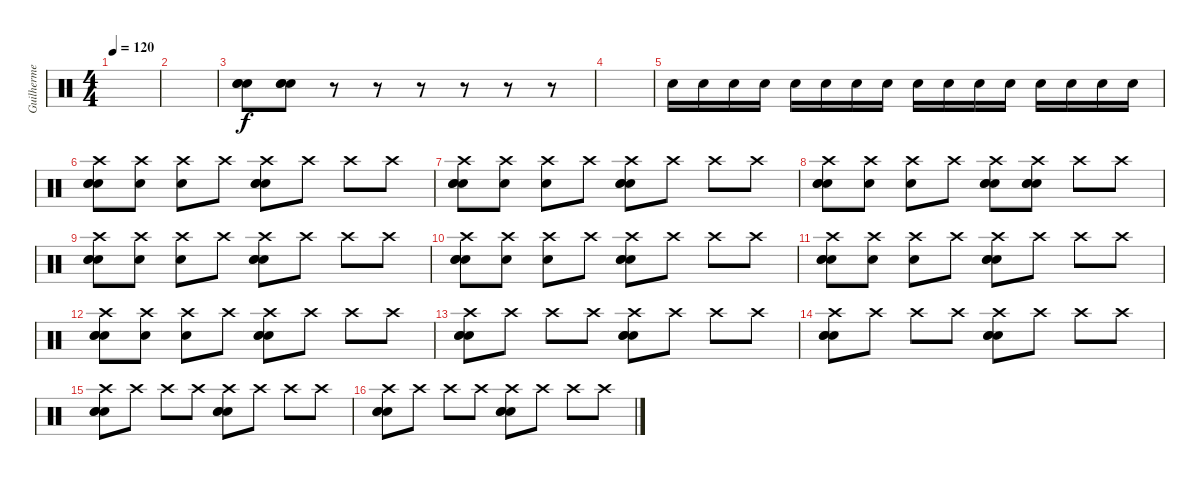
\track ("Guilherme" "Guilherme") {instrument percussion}
\staff {score}
\articulation defaults
\ts (4 4)
\tempo 120
\clef neutral
\ks c
|
|
("Snare (hit) 2" "Snare (hit) 2" "Snare (hit) 2").8 ("Snare (hit) 2" "Snare (hit) 2" "Snare (hit) 2").8 r.8 r.8 r.8 r.8 r.8 r.8 |
|
"Electric Snare (hit)".16 "Electric Snare (hit)".16 "Electric Snare (hit)".16 "Electric Snare (hit)".16 "Electric Snare (hit)".16 "Electric Snare (hit)".16 "Electric Snare (hit)".16 "Electric Snare (hit)".16 "Snare (hit) 2".16 "Snare (hit) 2".16 "Snare (hit) 2".16 "Snare (hit) 2".16 "Snare (hit) 2".16 "Snare (hit) 2".16 "Snare (hit) 2".16 "Snare (hit) 2".16 |
("Crash high (hit)" "Snare (hit) 2" "Snare (hit) 2" "Snare (hit) 2").8 ("Crash high (hit)" "Electric Snare (hit)").8 ("Crash high (hit)" "Electric Snare (hit)").8 "Crash high (hit)".8 ("Crash high (hit)" "Snare (hit) 2" "Snare (hit) 2" "Snare (hit) 2").8 "Crash high (hit)".8 "Crash high (hit)".8 "Crash high (hit)".8 |
("Crash high (hit)" "Snare (hit) 2" "Snare (hit) 2" "Snare (hit) 2").8 ("Crash high (hit)" "Electric Snare (hit)").8 ("Crash high (hit)" "Electric Snare (hit)").8 "Crash high (hit)".8 ("Crash high (hit)" "Snare (hit) 2" "Snare (hit) 2" "Snare (hit) 2").8 "Crash high (hit)".8 "Crash high (hit)".8 "Crash high (hit)".8 |
("Crash high (hit)" "Snare (hit) 2" "Snare (hit) 2" "Snare (hit) 2").8 ("Crash high (hit)" "Electric Snare (hit)").8 ("Crash high (hit)" "Electric Snare (hit)").8 "Crash high (hit)".8 ("Crash high (hit)" "Snare (hit) 2" "Snare (hit) 2" "Snare (hit) 2").8 ("Crash high (hit)" "Snare (hit) 2" "Snare (hit) 2" "Snare (hit) 2").8 "Crash high (hit)".8 "Crash high (hit)".8 |
("Crash high (hit)" "Snare (hit) 2" "Snare (hit) 2" "Snare (hit) 2").8 ("Crash high (hit)" "Electric Snare (hit)").8 ("Crash high (hit)" "Electric Snare (hit)").8 "Crash high (hit)".8 ("Crash high (hit)" "Snare (hit) 2" "Snare (hit) 2" "Snare (hit) 2").8 "Crash high (hit)".8 "Crash high (hit)".8 "Crash high (hit)".8 |
("Crash high (hit)" "Snare (hit) 2" "Snare (hit) 2" "Snare (hit) 2").8 ("Crash high (hit)" "Electric Snare (hit)").8 ("Crash high (hit)" "Electric Snare (hit)").8 "Crash high (hit)".8 ("Crash high (hit)" "Snare (hit) 2" "Snare (hit) 2" "Snare (hit) 2").8 "Crash high (hit)".8 "Crash high (hit)".8 "Crash high (hit)".8 |
("Crash high (hit)" "Snare (hit) 2" "Snare (hit) 2" "Snare (hit) 2").8 ("Crash high (hit)" "Electric Snare (hit)").8 ("Crash high (hit)" "Electric Snare (hit)").8 "Crash high (hit)".8 ("Crash high (hit)" "Snare (hit) 2" "Snare (hit) 2" "Snare (hit) 2").8 "Crash high (hit)".8 "Crash high (hit)".8 "Crash high (hit)".8 |
("Crash high (hit)" "Snare (hit) 2" "Snare (hit) 2" "Snare (hit) 2").8 ("Crash high (hit)" "Electric Snare (hit)").8 ("Crash high (hit)" "Electric Snare (hit)").8 "Crash high (hit)".8 ("Crash high (hit)" "Snare (hit) 2" "Snare (hit) 2" "Snare (hit) 2").8 "Crash high (hit)".8 "Crash high (hit)".8 "Crash high (hit)".8 |
("Crash high (hit)" "Snare (hit) 2" "Snare (hit) 2" "Snare (hit) 2").8 "Crash high (hit)".8 "Crash high (hit)".8 "Crash high (hit)".8 ("Crash high (hit)" "Snare (hit) 2" "Snare (hit) 2" "Snare (hit) 2").8 "Crash high (hit)".8 "Crash high (hit)".8 "Crash high (hit)".8 |
("Crash high (hit)" "Snare (hit) 2" "Snare (hit) 2" "Snare (hit) 2").8 "Crash high (hit)".8 "Crash high (hit)".8 "Crash high (hit)".8 ("Crash high (hit)" "Snare (hit) 2" "Snare (hit) 2" "Snare (hit) 2").8 "Crash high (hit)".8 "Crash high (hit)".8 "Crash high (hit)".8 |
("Crash high (hit)" "Snare (hit) 2" "Snare (hit) 2" "Snare (hit) 2").8 "Crash high (hit)".8 "Crash high (hit)".8 "Crash high (hit)".8 ("Crash high (hit)" "Snare (hit) 2" "Snare (hit) 2" "Snare (hit) 2").8 "Crash high (hit)".8 "Crash high (hit)".8 "Crash high (hit)".8 |
("Crash high (hit)" "Snare (hit) 2" "Snare (hit) 2" "Snare (hit) 2").8 "Crash high (hit)".8 "Crash high (hit)".8 "Crash high (hit)".8 ("Crash high (hit)" "Snare (hit) 2" "Snare (hit) 2" "Snare (hit) 2").8 "Crash high (hit)".8 "Crash high (hit)".8 "Crash high (hit)".8
